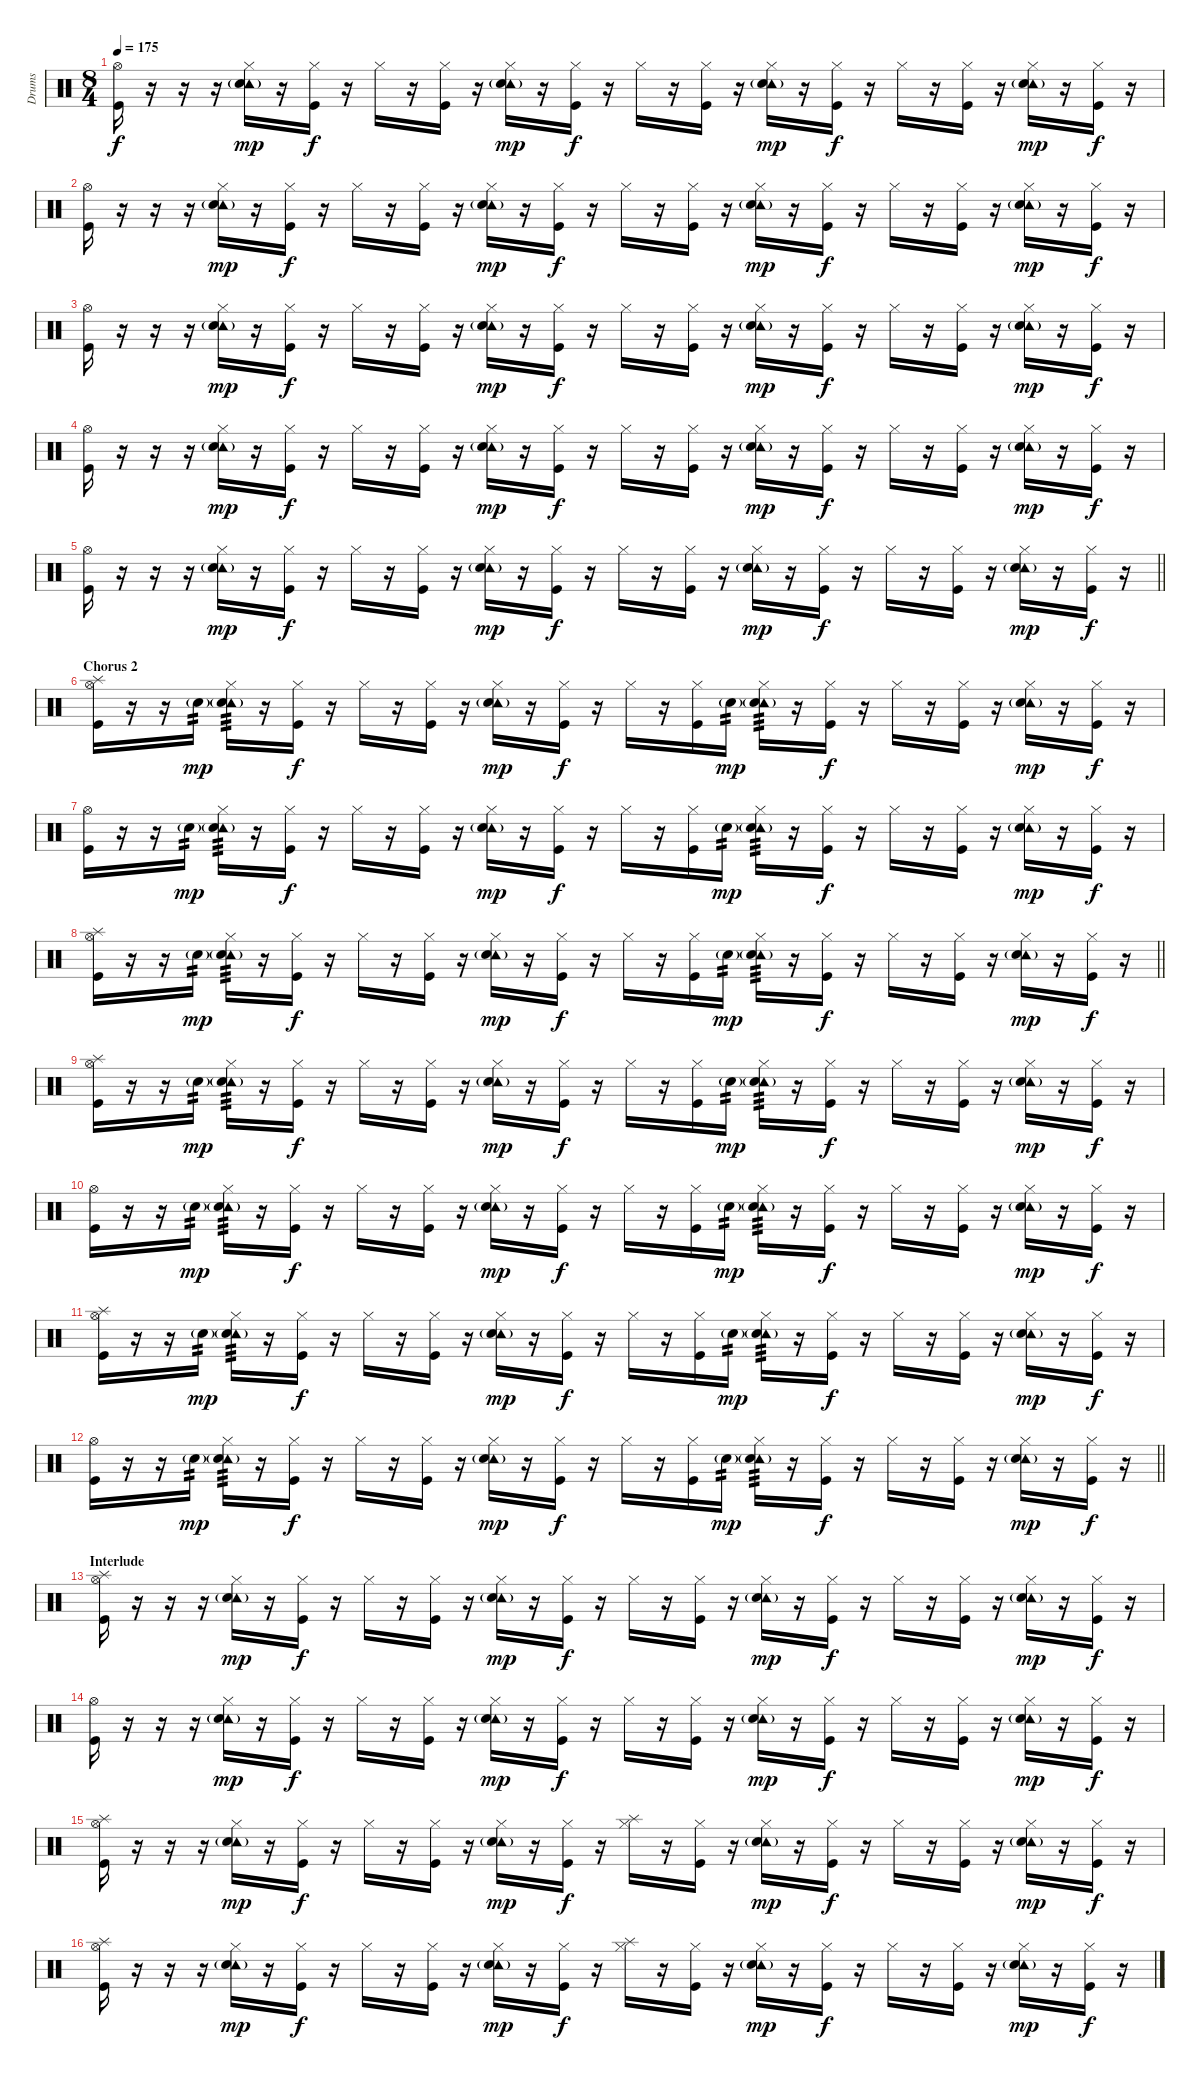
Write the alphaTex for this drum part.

\track ("Drums" "Drums") {instrument percussion}
\staff {score}
\articulation defaults
\ts (8 4)
\tempo 175
\clef neutral
\ks c
("Hi-Hat (open)" "Kick (hit)").16{dy f} r.16 r.16 r.16 ("Tambourine (hit)"{g} "Hi-Hat (closed)" "Electric Snare (hit)").16{dy mp} r.16 ("Hi-Hat (closed)" "Kick (hit)").16{dy f} r.16 "Hi-Hat (closed)".16 r.16 ("Hi-Hat (closed)" "Kick (hit)").16 r.16 ("Tambourine (hit)"{g} "Hi-Hat (closed)" "Electric Snare (hit)").16{dy mp} r.16 ("Hi-Hat (closed)" "Kick (hit)").16{dy f} r.16 "Hi-Hat (closed)".16 r.16 ("Hi-Hat (closed)" "Kick (hit)").16 r.16 ("Tambourine (hit)"{g} "Hi-Hat (closed)" "Electric Snare (hit)").16{dy mp} r.16 ("Hi-Hat (closed)" "Kick (hit)").16{dy f} r.16 "Hi-Hat (closed)".16 r.16 ("Hi-Hat (closed)" "Kick (hit)").16 r.16 ("Tambourine (hit)"{g} "Hi-Hat (closed)" "Electric Snare (hit)").16{dy mp} r.16 ("Hi-Hat (closed)" "Kick (hit)").16{dy f} r.16 |
("Hi-Hat (open)" "Kick (hit)").16 r.16 r.16 r.16 ("Tambourine (hit)"{g} "Hi-Hat (closed)" "Electric Snare (hit)").16{dy mp} r.16 ("Hi-Hat (closed)" "Kick (hit)").16{dy f} r.16 "Hi-Hat (closed)".16 r.16 ("Hi-Hat (closed)" "Kick (hit)").16 r.16 ("Tambourine (hit)"{g} "Hi-Hat (closed)" "Electric Snare (hit)").16{dy mp} r.16 ("Hi-Hat (closed)" "Kick (hit)").16{dy f} r.16 "Hi-Hat (closed)".16 r.16 ("Hi-Hat (closed)" "Kick (hit)").16 r.16 ("Tambourine (hit)"{g} "Hi-Hat (closed)" "Electric Snare (hit)").16{dy mp} r.16 ("Hi-Hat (closed)" "Kick (hit)").16{dy f} r.16 "Hi-Hat (closed)".16 r.16 ("Hi-Hat (closed)" "Kick (hit)").16 r.16 ("Tambourine (hit)"{g} "Hi-Hat (closed)" "Electric Snare (hit)").16{dy mp} r.16 ("Hi-Hat (closed)" "Kick (hit)").16{dy f} r.16 |
("Hi-Hat (open)" "Kick (hit)").16 r.16 r.16 r.16 ("Tambourine (hit)"{g} "Hi-Hat (closed)" "Electric Snare (hit)").16{dy mp} r.16 ("Hi-Hat (closed)" "Kick (hit)").16{dy f} r.16 "Hi-Hat (closed)".16 r.16 ("Hi-Hat (closed)" "Kick (hit)").16 r.16 ("Tambourine (hit)"{g} "Hi-Hat (closed)" "Electric Snare (hit)").16{dy mp} r.16 ("Hi-Hat (closed)" "Kick (hit)").16{dy f} r.16 "Hi-Hat (closed)".16 r.16 ("Hi-Hat (closed)" "Kick (hit)").16 r.16 ("Tambourine (hit)"{g} "Hi-Hat (closed)" "Electric Snare (hit)").16{dy mp} r.16 ("Hi-Hat (closed)" "Kick (hit)").16{dy f} r.16 "Hi-Hat (closed)".16 r.16 ("Hi-Hat (closed)" "Kick (hit)").16 r.16 ("Tambourine (hit)"{g} "Hi-Hat (closed)" "Electric Snare (hit)").16{dy mp} r.16 ("Hi-Hat (closed)" "Kick (hit)").16{dy f} r.16 |
("Hi-Hat (open)" "Kick (hit)").16 r.16 r.16 r.16 ("Tambourine (hit)"{g} "Hi-Hat (closed)" "Electric Snare (hit)").16{dy mp} r.16 ("Hi-Hat (closed)" "Kick (hit)").16{dy f} r.16 "Hi-Hat (closed)".16 r.16 ("Hi-Hat (closed)" "Kick (hit)").16 r.16 ("Tambourine (hit)"{g} "Hi-Hat (closed)" "Electric Snare (hit)").16{dy mp} r.16 ("Hi-Hat (closed)" "Kick (hit)").16{dy f} r.16 "Hi-Hat (closed)".16 r.16 ("Hi-Hat (closed)" "Kick (hit)").16 r.16 ("Tambourine (hit)"{g} "Hi-Hat (closed)" "Electric Snare (hit)").16{dy mp} r.16 ("Hi-Hat (closed)" "Kick (hit)").16{dy f} r.16 "Hi-Hat (closed)".16 r.16 ("Hi-Hat (closed)" "Kick (hit)").16 r.16 ("Tambourine (hit)"{g} "Hi-Hat (closed)" "Electric Snare (hit)").16{dy mp} r.16 ("Hi-Hat (closed)" "Kick (hit)").16{dy f} r.16 |
\barLineRight lightlight
("Hi-Hat (open)" "Kick (hit)").16 r.16 r.16 r.16 ("Tambourine (hit)"{g} "Hi-Hat (closed)" "Electric Snare (hit)").16{dy mp} r.16 ("Hi-Hat (closed)" "Kick (hit)").16{dy f} r.16 "Hi-Hat (closed)".16 r.16 ("Hi-Hat (closed)" "Kick (hit)").16 r.16 ("Tambourine (hit)"{g} "Hi-Hat (closed)" "Electric Snare (hit)").16{dy mp} r.16 ("Hi-Hat (closed)" "Kick (hit)").16{dy f} r.16 "Hi-Hat (closed)".16 r.16 ("Hi-Hat (closed)" "Kick (hit)").16 r.16 ("Tambourine (hit)"{g} "Hi-Hat (closed)" "Electric Snare (hit)").16{dy mp} r.16 ("Hi-Hat (closed)" "Kick (hit)").16{dy f} r.16 "Hi-Hat (closed)".16 r.16 ("Hi-Hat (closed)" "Kick (hit)").16 r.16 ("Tambourine (hit)"{g} "Hi-Hat (closed)" "Electric Snare (hit)").16{dy mp} r.16 ("Hi-Hat (closed)" "Kick (hit)").16{dy f} r.16 |
\section ("" "Chorus 2")
("Splash (hit)" "Hi-Hat (open)" "Kick (hit)").16 r.16 r.16 "Electric Snare (hit)"{g}.16{tp 2 dy mp} ("Tambourine (hit)"{g} "Hi-Hat (closed)" "Electric Snare (hit)").16{tp 3} r.16 ("Hi-Hat (closed)" "Kick (hit)").16{dy f} r.16 "Hi-Hat (closed)".16 r.16 ("Hi-Hat (closed)" "Kick (hit)").16 r.16 ("Tambourine (hit)"{g} "Hi-Hat (closed)" "Electric Snare (hit)").16{dy mp} r.16 ("Hi-Hat (closed)" "Kick (hit)").16{dy f} r.16 "Hi-Hat (closed)".16 r.16 ("Hi-Hat (closed)" "Kick (hit)").16 "Electric Snare (hit)"{g}.16{tp 2 dy mp} ("Tambourine (hit)"{g} "Hi-Hat (closed)" "Electric Snare (hit)").16{tp 3} r.16 ("Hi-Hat (closed)" "Kick (hit)").16{dy f} r.16 "Hi-Hat (closed)".16 r.16 ("Hi-Hat (closed)" "Kick (hit)").16 r.16 ("Tambourine (hit)"{g} "Hi-Hat (closed)" "Electric Snare (hit)").16{dy mp} r.16 ("Hi-Hat (closed)" "Kick (hit)").16{dy f} r.16 |
("Hi-Hat (open)" "Kick (hit)").16 r.16 r.16 "Electric Snare (hit)"{g}.16{tp 2 dy mp} ("Tambourine (hit)"{g} "Hi-Hat (closed)" "Electric Snare (hit)").16{tp 3} r.16 ("Hi-Hat (closed)" "Kick (hit)").16{dy f} r.16 "Hi-Hat (closed)".16 r.16 ("Hi-Hat (closed)" "Kick (hit)").16 r.16 ("Tambourine (hit)"{g} "Hi-Hat (closed)" "Electric Snare (hit)").16{dy mp} r.16 ("Hi-Hat (closed)" "Kick (hit)").16{dy f} r.16 "Hi-Hat (closed)".16 r.16 ("Hi-Hat (closed)" "Kick (hit)").16 "Electric Snare (hit)"{g}.16{tp 2 dy mp} ("Tambourine (hit)"{g} "Hi-Hat (closed)" "Electric Snare (hit)").16{tp 3} r.16 ("Hi-Hat (closed)" "Kick (hit)").16{dy f} r.16 "Hi-Hat (closed)".16 r.16 ("Hi-Hat (closed)" "Kick (hit)").16 r.16 ("Tambourine (hit)"{g} "Hi-Hat (closed)" "Electric Snare (hit)").16{dy mp} r.16 ("Hi-Hat (closed)" "Kick (hit)").16{dy f} r.16 |
\barLineRight lightlight
("Splash (hit)" "Hi-Hat (open)" "Kick (hit)").16 r.16 r.16 "Electric Snare (hit)"{g}.16{tp 2 dy mp} ("Tambourine (hit)"{g} "Hi-Hat (closed)" "Electric Snare (hit)").16{tp 3} r.16 ("Hi-Hat (closed)" "Kick (hit)").16{dy f} r.16 "Hi-Hat (closed)".16 r.16 ("Hi-Hat (closed)" "Kick (hit)").16 r.16 ("Tambourine (hit)"{g} "Hi-Hat (closed)" "Electric Snare (hit)").16{dy mp} r.16 ("Hi-Hat (closed)" "Kick (hit)").16{dy f} r.16 "Hi-Hat (closed)".16 r.16 ("Hi-Hat (closed)" "Kick (hit)").16 "Electric Snare (hit)"{g}.16{tp 2 dy mp} ("Tambourine (hit)"{g} "Hi-Hat (closed)" "Electric Snare (hit)").16{tp 3} r.16 ("Hi-Hat (closed)" "Kick (hit)").16{dy f} r.16 "Hi-Hat (closed)".16 r.16 ("Hi-Hat (closed)" "Kick (hit)").16 r.16 ("Tambourine (hit)"{g} "Hi-Hat (closed)" "Electric Snare (hit)").16{dy mp} r.16 ("Hi-Hat (closed)" "Kick (hit)").16{dy f} r.16 |
("Splash (hit)" "Hi-Hat (open)" "Kick (hit)").16 r.16 r.16 "Electric Snare (hit)"{g}.16{tp 2 dy mp} ("Tambourine (hit)"{g} "Hi-Hat (closed)" "Electric Snare (hit)").16{tp 3} r.16 ("Hi-Hat (closed)" "Kick (hit)").16{dy f} r.16 "Hi-Hat (closed)".16 r.16 ("Hi-Hat (closed)" "Kick (hit)").16 r.16 ("Tambourine (hit)"{g} "Hi-Hat (closed)" "Electric Snare (hit)").16{dy mp} r.16 ("Hi-Hat (closed)" "Kick (hit)").16{dy f} r.16 "Hi-Hat (closed)".16 r.16 ("Hi-Hat (closed)" "Kick (hit)").16 "Electric Snare (hit)"{g}.16{tp 2 dy mp} ("Tambourine (hit)"{g} "Hi-Hat (closed)" "Electric Snare (hit)").16{tp 3} r.16 ("Hi-Hat (closed)" "Kick (hit)").16{dy f} r.16 "Hi-Hat (closed)".16 r.16 ("Hi-Hat (closed)" "Kick (hit)").16 r.16 ("Tambourine (hit)"{g} "Hi-Hat (closed)" "Electric Snare (hit)").16{dy mp} r.16 ("Hi-Hat (closed)" "Kick (hit)").16{dy f} r.16 |
("Hi-Hat (open)" "Kick (hit)").16 r.16 r.16 "Electric Snare (hit)"{g}.16{tp 2 dy mp} ("Tambourine (hit)"{g} "Hi-Hat (closed)" "Electric Snare (hit)").16{tp 3} r.16 ("Hi-Hat (closed)" "Kick (hit)").16{dy f} r.16 "Hi-Hat (closed)".16 r.16 ("Hi-Hat (closed)" "Kick (hit)").16 r.16 ("Tambourine (hit)"{g} "Hi-Hat (closed)" "Electric Snare (hit)").16{dy mp} r.16 ("Hi-Hat (closed)" "Kick (hit)").16{dy f} r.16 "Hi-Hat (closed)".16 r.16 ("Hi-Hat (closed)" "Kick (hit)").16 "Electric Snare (hit)"{g}.16{tp 2 dy mp} ("Tambourine (hit)"{g} "Hi-Hat (closed)" "Electric Snare (hit)").16{tp 3} r.16 ("Hi-Hat (closed)" "Kick (hit)").16{dy f} r.16 "Hi-Hat (closed)".16 r.16 ("Hi-Hat (closed)" "Kick (hit)").16 r.16 ("Tambourine (hit)"{g} "Hi-Hat (closed)" "Electric Snare (hit)").16{dy mp} r.16 ("Hi-Hat (closed)" "Kick (hit)").16{dy f} r.16 |
("Splash (hit)" "Hi-Hat (open)" "Kick (hit)").16 r.16 r.16 "Electric Snare (hit)"{g}.16{tp 2 dy mp} ("Tambourine (hit)"{g} "Hi-Hat (closed)" "Electric Snare (hit)").16{tp 3} r.16 ("Hi-Hat (closed)" "Kick (hit)").16{dy f} r.16 "Hi-Hat (closed)".16 r.16 ("Hi-Hat (closed)" "Kick (hit)").16 r.16 ("Tambourine (hit)"{g} "Hi-Hat (closed)" "Electric Snare (hit)").16{dy mp} r.16 ("Hi-Hat (closed)" "Kick (hit)").16{dy f} r.16 "Hi-Hat (closed)".16 r.16 ("Hi-Hat (closed)" "Kick (hit)").16 "Electric Snare (hit)"{g}.16{tp 2 dy mp} ("Tambourine (hit)"{g} "Hi-Hat (closed)" "Electric Snare (hit)").16{tp 3} r.16 ("Hi-Hat (closed)" "Kick (hit)").16{dy f} r.16 "Hi-Hat (closed)".16 r.16 ("Hi-Hat (closed)" "Kick (hit)").16 r.16 ("Tambourine (hit)"{g} "Hi-Hat (closed)" "Electric Snare (hit)").16{dy mp} r.16 ("Hi-Hat (closed)" "Kick (hit)").16{dy f} r.16 |
\barLineRight lightlight
("Hi-Hat (open)" "Kick (hit)").16 r.16 r.16 "Electric Snare (hit)"{g}.16{tp 2 dy mp} ("Tambourine (hit)"{g} "Hi-Hat (closed)" "Electric Snare (hit)").16{tp 3} r.16 ("Hi-Hat (closed)" "Kick (hit)").16{dy f} r.16 "Hi-Hat (closed)".16 r.16 ("Hi-Hat (closed)" "Kick (hit)").16 r.16 ("Tambourine (hit)"{g} "Hi-Hat (closed)" "Electric Snare (hit)").16{dy mp} r.16 ("Hi-Hat (closed)" "Kick (hit)").16{dy f} r.16 "Hi-Hat (closed)".16 r.16 ("Hi-Hat (closed)" "Kick (hit)").16 "Electric Snare (hit)"{g}.16{tp 2 dy mp} ("Tambourine (hit)"{g} "Hi-Hat (closed)" "Electric Snare (hit)").16{tp 3} r.16 ("Hi-Hat (closed)" "Kick (hit)").16{dy f} r.16 "Hi-Hat (closed)".16 r.16 ("Hi-Hat (closed)" "Kick (hit)").16 r.16 ("Tambourine (hit)"{g} "Hi-Hat (closed)" "Electric Snare (hit)").16{dy mp} r.16 ("Hi-Hat (closed)" "Kick (hit)").16{dy f} r.16 |
\section ("" "Interlude")
("Splash (hit)" "Hi-Hat (open)" "Kick (hit)").16 r.16 r.16 r.16 ("Tambourine (hit)"{g} "Hi-Hat (closed)" "Electric Snare (hit)").16{dy mp} r.16 ("Hi-Hat (closed)" "Kick (hit)").16{dy f} r.16 "Hi-Hat (closed)".16 r.16 ("Hi-Hat (closed)" "Kick (hit)").16 r.16 ("Tambourine (hit)"{g} "Hi-Hat (closed)" "Electric Snare (hit)").16{dy mp} r.16 ("Hi-Hat (closed)" "Kick (hit)").16{dy f} r.16 "Hi-Hat (closed)".16 r.16 ("Hi-Hat (closed)" "Kick (hit)").16 r.16 ("Tambourine (hit)"{g} "Hi-Hat (closed)" "Electric Snare (hit)").16{dy mp} r.16 ("Hi-Hat (closed)" "Kick (hit)").16{dy f} r.16 "Hi-Hat (closed)".16 r.16 ("Hi-Hat (closed)" "Kick (hit)").16 r.16 ("Tambourine (hit)"{g} "Hi-Hat (closed)" "Electric Snare (hit)").16{dy mp} r.16 ("Hi-Hat (closed)" "Kick (hit)").16{dy f} r.16 |
("Hi-Hat (open)" "Kick (hit)").16 r.16 r.16 r.16 ("Tambourine (hit)"{g} "Hi-Hat (closed)" "Electric Snare (hit)").16{dy mp} r.16 ("Hi-Hat (closed)" "Kick (hit)").16{dy f} r.16 "Hi-Hat (closed)".16 r.16 ("Hi-Hat (closed)" "Kick (hit)").16 r.16 ("Tambourine (hit)"{g} "Hi-Hat (closed)" "Electric Snare (hit)").16{dy mp} r.16 ("Hi-Hat (closed)" "Kick (hit)").16{dy f} r.16 "Hi-Hat (closed)".16 r.16 ("Hi-Hat (closed)" "Kick (hit)").16 r.16 ("Tambourine (hit)"{g} "Hi-Hat (closed)" "Electric Snare (hit)").16{dy mp} r.16 ("Hi-Hat (closed)" "Kick (hit)").16{dy f} r.16 "Hi-Hat (closed)".16 r.16 ("Hi-Hat (closed)" "Kick (hit)").16 r.16 ("Tambourine (hit)"{g} "Hi-Hat (closed)" "Electric Snare (hit)").16{dy mp} r.16 ("Hi-Hat (closed)" "Kick (hit)").16{dy f} r.16 |
("Splash (hit)" "Hi-Hat (open)" "Kick (hit)").16 r.16 r.16 r.16 ("Tambourine (hit)"{g} "Hi-Hat (closed)" "Electric Snare (hit)").16{dy mp} r.16 ("Hi-Hat (closed)" "Kick (hit)").16{dy f} r.16 "Hi-Hat (closed)".16 r.16 ("Hi-Hat (closed)" "Kick (hit)").16 r.16 ("Tambourine (hit)"{g} "Hi-Hat (closed)" "Electric Snare (hit)").16{dy mp} r.16 ("Hi-Hat (closed)" "Kick (hit)").16{dy f} r.16 ("Splash (hit)" "Hi-Hat (closed)").16 r.16 ("Hi-Hat (closed)" "Kick (hit)").16 r.16 ("Tambourine (hit)"{g} "Hi-Hat (closed)" "Electric Snare (hit)").16{dy mp} r.16 ("Hi-Hat (closed)" "Kick (hit)").16{dy f} r.16 "Hi-Hat (closed)".16 r.16 ("Hi-Hat (closed)" "Kick (hit)").16 r.16 ("Tambourine (hit)"{g} "Hi-Hat (closed)" "Electric Snare (hit)").16{dy mp} r.16 ("Hi-Hat (closed)" "Kick (hit)").16{dy f} r.16 |
("Splash (hit)" "Hi-Hat (open)" "Kick (hit)").16 r.16 r.16 r.16 ("Tambourine (hit)"{g} "Hi-Hat (closed)" "Electric Snare (hit)").16{dy mp} r.16 ("Hi-Hat (closed)" "Kick (hit)").16{dy f} r.16 "Hi-Hat (closed)".16 r.16 ("Hi-Hat (closed)" "Kick (hit)").16 r.16 ("Tambourine (hit)"{g} "Hi-Hat (closed)" "Electric Snare (hit)").16{dy mp} r.16 ("Hi-Hat (closed)" "Kick (hit)").16{dy f} r.16 ("Splash (hit)" "Hi-Hat (closed)").16 r.16 ("Hi-Hat (closed)" "Kick (hit)").16 r.16 ("Tambourine (hit)"{g} "Hi-Hat (closed)" "Electric Snare (hit)").16{dy mp} r.16 ("Hi-Hat (closed)" "Kick (hit)").16{dy f} r.16 "Hi-Hat (closed)".16 r.16 ("Hi-Hat (closed)" "Kick (hit)").16 r.16 ("Tambourine (hit)"{g} "Hi-Hat (closed)" "Electric Snare (hit)").16{dy mp} r.16 ("Hi-Hat (closed)" "Kick (hit)").16{dy f} r.16
